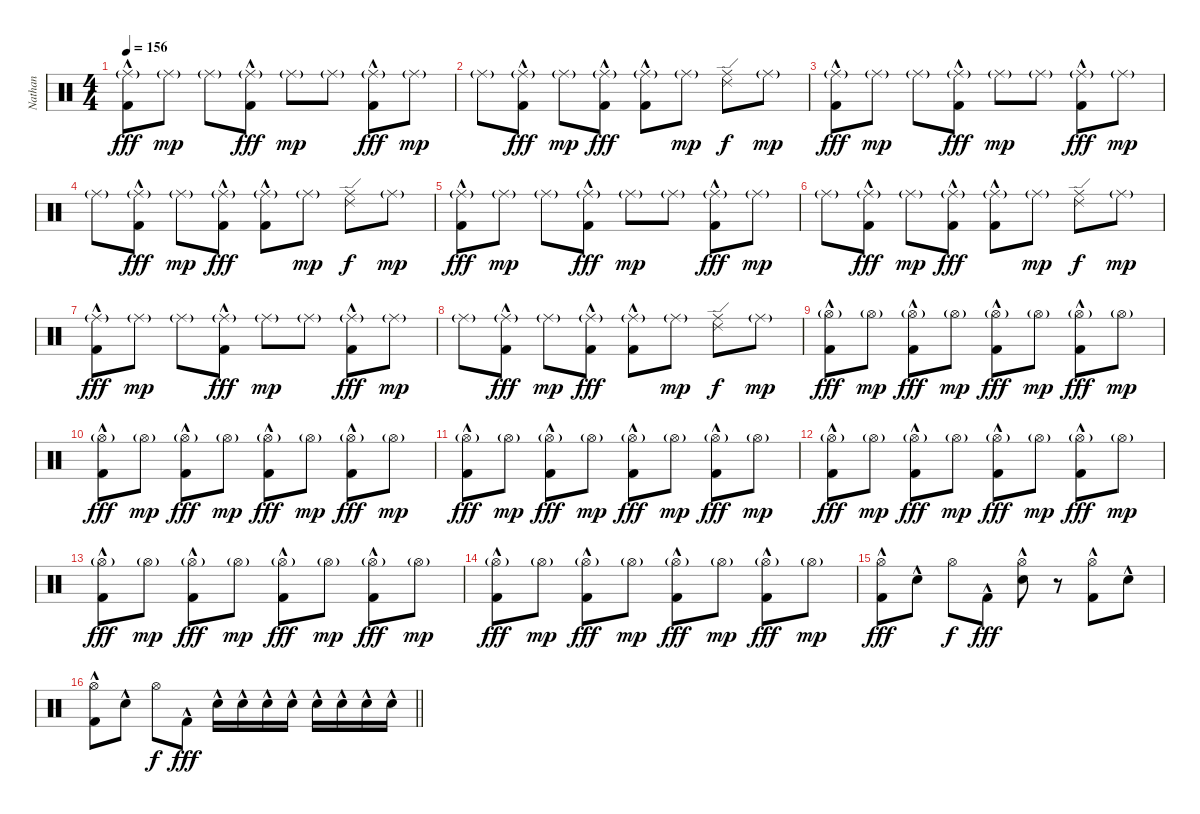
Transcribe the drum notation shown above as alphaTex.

\track ("Nathan" "Nathan") {instrument percussion}
\staff {score}
\articulation defaults
\ts (4 4)
\tempo 156
\clef neutral
\ks c
("Ride (middle)"{g} "Kick (hit) 2"{hac}).8{dy fff volume 6} "Ride (middle)"{g}.8{dy mp} "Ride (middle)"{g}.8 ("Ride (middle)"{g} "Kick (hit) 2"{hac}).8{dy fff} "Ride (middle)"{g}.8{dy mp} "Ride (middle)"{g}.8 ("Ride (middle)"{g} "Kick (hit) 2"{hac}).8{dy fff} "Ride (middle)"{g}.8{dy mp} |
"Ride (middle)"{g}.8 ("Ride (middle)"{g} "Kick (hit) 2"{hac}).8{dy fff} "Ride (middle)"{g}.8{dy mp} ("Ride (middle)"{g} "Kick (hit) 2"{hac}).8{dy fff} ("Ride (middle)"{g} "Kick (hit) 2"{hac}).8 "Ride (middle)"{g}.8{dy mp} ("Ride (edge) 2" "Ride (middle)").8{dy f} "Ride (middle)"{g}.8{dy mp} |
("Ride (middle)"{g} "Kick (hit) 2"{hac}).8{dy fff} "Ride (middle)"{g}.8{dy mp} "Ride (middle)"{g}.8 ("Ride (middle)"{g} "Kick (hit) 2"{hac}).8{dy fff} "Ride (middle)"{g}.8{dy mp} "Ride (middle)"{g}.8 ("Ride (middle)"{g} "Kick (hit) 2"{hac}).8{dy fff} "Ride (middle)"{g}.8{dy mp} |
"Ride (middle)"{g}.8 ("Ride (middle)"{g} "Kick (hit) 2"{hac}).8{dy fff} "Ride (middle)"{g}.8{dy mp} ("Ride (middle)"{g} "Kick (hit) 2"{hac}).8{dy fff} ("Ride (middle)"{g} "Kick (hit) 2"{hac}).8 "Ride (middle)"{g}.8{dy mp} ("Ride (edge) 2" "Ride (middle)").8{dy f} "Ride (middle)"{g}.8{dy mp} |
("Ride (middle)"{g} "Kick (hit) 2"{hac}).8{dy fff} "Ride (middle)"{g}.8{dy mp} "Ride (middle)"{g}.8 ("Ride (middle)"{g} "Kick (hit) 2"{hac}).8{dy fff} "Ride (middle)"{g}.8{dy mp} "Ride (middle)"{g}.8 ("Ride (middle)"{g} "Kick (hit) 2"{hac}).8{dy fff} "Ride (middle)"{g}.8{dy mp} |
"Ride (middle)"{g}.8 ("Ride (middle)"{g} "Kick (hit) 2"{hac}).8{dy fff} "Ride (middle)"{g}.8{dy mp} ("Ride (middle)"{g} "Kick (hit) 2"{hac}).8{dy fff} ("Ride (middle)"{g} "Kick (hit) 2"{hac}).8 "Ride (middle)"{g}.8{dy mp} ("Ride (edge) 2" "Ride (middle)").8{dy f} "Ride (middle)"{g}.8{dy mp} |
("Ride (middle)"{g} "Kick (hit) 2"{hac}).8{dy fff} "Ride (middle)"{g}.8{dy mp} "Ride (middle)"{g}.8 ("Ride (middle)"{g} "Kick (hit) 2"{hac}).8{dy fff} "Ride (middle)"{g}.8{dy mp} "Ride (middle)"{g}.8 ("Ride (middle)"{g} "Kick (hit) 2"{hac}).8{dy fff} "Ride (middle)"{g}.8{dy mp} |
"Ride (middle)"{g}.8 ("Ride (middle)"{g} "Kick (hit) 2"{hac}).8{dy fff} "Ride (middle)"{g}.8{dy mp} ("Ride (middle)"{g} "Kick (hit) 2"{hac}).8{dy fff} ("Ride (middle)"{g} "Kick (hit) 2"{hac}).8 "Ride (middle)"{g}.8{dy mp} ("Ride (edge) 2" "Ride (middle)").8{dy f} "Ride (middle)"{g}.8{dy mp} |
("Hi-Hat (open)"{g} "Kick (hit) 2"{hac}).8{dy fff volume 11} "Hi-Hat (open)"{g}.8{dy mp} ("Hi-Hat (open)"{g} "Kick (hit) 2"{hac}).8{dy fff} "Hi-Hat (open)"{g}.8{dy mp} ("Hi-Hat (open)"{g} "Kick (hit) 2"{hac}).8{dy fff} "Hi-Hat (open)"{g}.8{dy mp} ("Hi-Hat (open)"{g} "Kick (hit) 2"{hac}).8{dy fff} "Hi-Hat (open)"{g}.8{dy mp} |
("Hi-Hat (open)"{g} "Kick (hit) 2"{hac}).8{dy fff} "Hi-Hat (open)"{g}.8{dy mp} ("Hi-Hat (open)"{g} "Kick (hit) 2"{hac}).8{dy fff} "Hi-Hat (open)"{g}.8{dy mp} ("Hi-Hat (open)"{g} "Kick (hit) 2"{hac}).8{dy fff} "Hi-Hat (open)"{g}.8{dy mp} ("Hi-Hat (open)"{g} "Kick (hit) 2"{hac}).8{dy fff} "Hi-Hat (open)"{g}.8{dy mp} |
("Hi-Hat (open)"{g} "Kick (hit) 2"{hac}).8{dy fff} "Hi-Hat (open)"{g}.8{dy mp} ("Hi-Hat (open)"{g} "Kick (hit) 2"{hac}).8{dy fff} "Hi-Hat (open)"{g}.8{dy mp} ("Hi-Hat (open)"{g} "Kick (hit) 2"{hac}).8{dy fff} "Hi-Hat (open)"{g}.8{dy mp} ("Hi-Hat (open)"{g} "Kick (hit) 2"{hac}).8{dy fff} "Hi-Hat (open)"{g}.8{dy mp} |
("Hi-Hat (open)"{g} "Kick (hit) 2"{hac}).8{dy fff} "Hi-Hat (open)"{g}.8{dy mp} ("Hi-Hat (open)"{g} "Kick (hit) 2"{hac}).8{dy fff} "Hi-Hat (open)"{g}.8{dy mp} ("Hi-Hat (open)"{g} "Kick (hit) 2"{hac}).8{dy fff} "Hi-Hat (open)"{g}.8{dy mp} ("Hi-Hat (open)"{g} "Kick (hit) 2"{hac}).8{dy fff} "Hi-Hat (open)"{g}.8{dy mp} |
("Hi-Hat (open)"{g} "Kick (hit) 2"{hac}).8{dy fff} "Hi-Hat (open)"{g}.8{dy mp} ("Hi-Hat (open)"{g} "Kick (hit) 2"{hac}).8{dy fff} "Hi-Hat (open)"{g}.8{dy mp} ("Hi-Hat (open)"{g} "Kick (hit) 2"{hac}).8{dy fff} "Hi-Hat (open)"{g}.8{dy mp} ("Hi-Hat (open)"{g} "Kick (hit) 2"{hac}).8{dy fff} "Hi-Hat (open)"{g}.8{dy mp} |
("Hi-Hat (open)"{g} "Kick (hit) 2"{hac}).8{dy fff} "Hi-Hat (open)"{g}.8{dy mp} ("Hi-Hat (open)"{g} "Kick (hit) 2"{hac}).8{dy fff} "Hi-Hat (open)"{g}.8{dy mp} ("Hi-Hat (open)"{g} "Kick (hit) 2"{hac}).8{dy fff} "Hi-Hat (open)"{g}.8{dy mp} ("Hi-Hat (open)"{g} "Kick (hit) 2"{hac}).8{dy fff} "Hi-Hat (open)"{g}.8{dy mp} |
("Hi-Hat (open)" "Kick (hit) 2"{hac}).8{dy fff} "Snare (hit) 2"{hac}.8 "Hi-Hat (open)".8{dy f} "Kick (hit) 2"{hac}.8{dy fff} ("Hi-Hat (open)" "Snare (hit) 2"{hac}).8 r.8 ("Hi-Hat (open)" "Kick (hit) 2"{hac}).8 "Snare (hit) 2"{hac}.8 |
\barLineRight lightlight
("Hi-Hat (open)" "Kick (hit) 2"{hac}).8 "Snare (hit) 2"{hac}.8 "Hi-Hat (open)".8{dy f} "Kick (hit) 2"{hac}.8{dy fff} "Snare (hit) 2"{hac}.16 "Snare (hit) 2"{hac}.16 "Snare (hit) 2"{hac}.16 "Snare (hit) 2"{hac}.16 "Snare (hit) 2"{hac}.16 "Snare (hit) 2"{hac}.16 "Snare (hit) 2"{hac}.16 "Snare (hit) 2"{hac}.16
